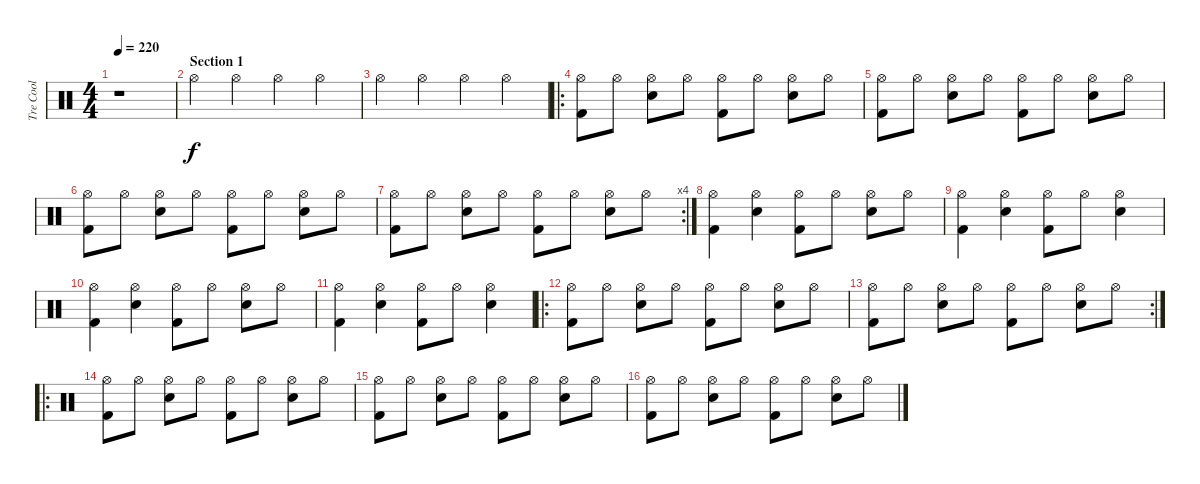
\track ("Tre Cool" "Tre Cool") {instrument percussion}
\staff {score}
\articulation defaults
\ts (4 4)
\tempo 220
\clef neutral
\ks c
r.1{dy f} |
\section ("" "Section 1")
"Hi-Hat (open)".4 "Hi-Hat (open)".4 "Hi-Hat (open)".4 "Hi-Hat (open)".4 |
"Hi-Hat (open)".4 "Hi-Hat (open)".4 "Hi-Hat (open)".4 "Hi-Hat (open)".4 |
\ro
("Hi-Hat (open)" "Kick (hit) 2").8 "Hi-Hat (open)".8 ("Hi-Hat (open)" "Snare (hit) 2").8 "Hi-Hat (open)".8 ("Hi-Hat (open)" "Kick (hit) 2").8 "Hi-Hat (open)".8 ("Hi-Hat (open)" "Snare (hit) 2").8 "Hi-Hat (open)".8 |
("Hi-Hat (open)" "Kick (hit) 2").8 "Hi-Hat (open)".8 ("Hi-Hat (open)" "Snare (hit) 2").8 "Hi-Hat (open)".8 ("Hi-Hat (open)" "Kick (hit) 2").8 "Hi-Hat (open)".8 ("Hi-Hat (open)" "Snare (hit) 2").8 "Hi-Hat (open)".8 |
("Hi-Hat (open)" "Kick (hit) 2").8 "Hi-Hat (open)".8 ("Hi-Hat (open)" "Snare (hit) 2").8 "Hi-Hat (open)".8 ("Hi-Hat (open)" "Kick (hit) 2").8 "Hi-Hat (open)".8 ("Hi-Hat (open)" "Snare (hit) 2").8 "Hi-Hat (open)".8 |
\rc 4
("Hi-Hat (open)" "Kick (hit) 2").8 "Hi-Hat (open)".8 ("Hi-Hat (open)" "Snare (hit) 2").8 "Hi-Hat (open)".8 ("Hi-Hat (open)" "Kick (hit) 2").8 "Hi-Hat (open)".8 ("Hi-Hat (open)" "Snare (hit) 2").8 "Hi-Hat (open)".8 |
("Hi-Hat (open)" "Kick (hit) 2").4 ("Hi-Hat (open)" "Snare (hit) 2").4 ("Hi-Hat (open)" "Kick (hit) 2").8 "Hi-Hat (open)".8 ("Hi-Hat (open)" "Snare (hit) 2").8 "Hi-Hat (open)".8 |
("Hi-Hat (open)" "Kick (hit) 2").4 ("Hi-Hat (open)" "Snare (hit) 2").4 ("Hi-Hat (open)" "Kick (hit) 2").8 "Hi-Hat (open)".8 ("Hi-Hat (open)" "Snare (hit) 2").4 |
("Hi-Hat (open)" "Kick (hit) 2").4 ("Hi-Hat (open)" "Snare (hit) 2").4 ("Hi-Hat (open)" "Kick (hit) 2").8 "Hi-Hat (open)".8 ("Hi-Hat (open)" "Snare (hit) 2").8 "Hi-Hat (open)".8 |
("Hi-Hat (open)" "Kick (hit) 2").4 ("Hi-Hat (open)" "Snare (hit) 2").4 ("Hi-Hat (open)" "Kick (hit) 2").8 "Hi-Hat (open)".8 ("Hi-Hat (open)" "Snare (hit) 2").4 |
\ro
("Hi-Hat (open)" "Kick (hit) 2").8 "Hi-Hat (open)".8 ("Hi-Hat (open)" "Snare (hit) 2").8 "Hi-Hat (open)".8 ("Hi-Hat (open)" "Kick (hit) 2").8 "Hi-Hat (open)".8 ("Hi-Hat (open)" "Snare (hit) 2").8 "Hi-Hat (open)".8 |
\rc 2
("Hi-Hat (open)" "Kick (hit) 2").8 "Hi-Hat (open)".8 ("Hi-Hat (open)" "Snare (hit) 2").8 "Hi-Hat (open)".8 ("Hi-Hat (open)" "Kick (hit) 2").8 "Hi-Hat (open)".8 ("Hi-Hat (open)" "Snare (hit) 2").8 "Hi-Hat (open)".8 |
\ro
("Hi-Hat (open)" "Kick (hit) 2").8 "Hi-Hat (open)".8 ("Hi-Hat (open)" "Snare (hit) 2").8 "Hi-Hat (open)".8 ("Hi-Hat (open)" "Kick (hit) 2").8 "Hi-Hat (open)".8 ("Hi-Hat (open)" "Snare (hit) 2").8 "Hi-Hat (open)".8 |
("Hi-Hat (open)" "Kick (hit) 2").8 "Hi-Hat (open)".8 ("Hi-Hat (open)" "Snare (hit) 2").8 "Hi-Hat (open)".8 ("Hi-Hat (open)" "Kick (hit) 2").8 "Hi-Hat (open)".8 ("Hi-Hat (open)" "Snare (hit) 2").8 "Hi-Hat (open)".8 |
("Hi-Hat (open)" "Kick (hit) 2").8 "Hi-Hat (open)".8 ("Hi-Hat (open)" "Snare (hit) 2").8 "Hi-Hat (open)".8 ("Hi-Hat (open)" "Kick (hit) 2").8 "Hi-Hat (open)".8 ("Hi-Hat (open)" "Snare (hit) 2").8 "Hi-Hat (open)".8
